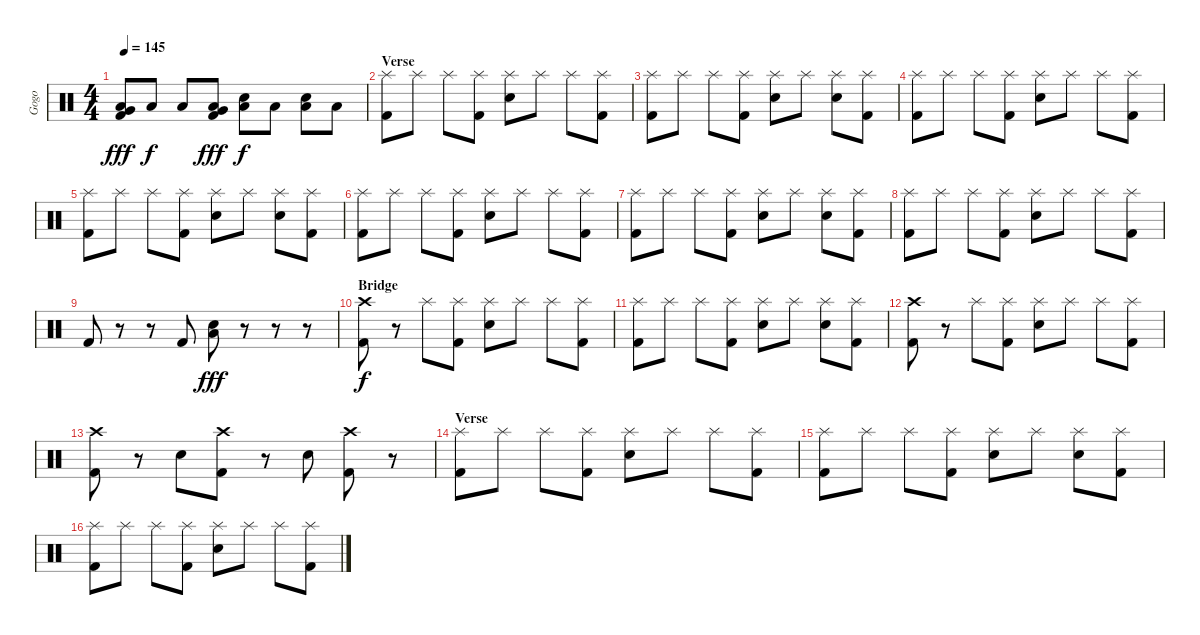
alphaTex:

\track ("Gogo" "Gogo") {instrument percussion}
\staff {score}
\articulation defaults
\ts (4 4)
\tempo 145
\clef neutral
\ks c
("Very Low Tom (hit)" "Low Floor Tom (hit)" "Kick (hit) 2").8{dy fff} "Low Floor Tom (hit)".8{dy f} "Low Floor Tom (hit)".8 ("Very Low Tom (hit)" "Low Floor Tom (hit)" "Kick (hit) 2").8{dy fff} ("Snare (hit) 2" "Low Floor Tom (hit)").8{dy f} "Low Floor Tom (hit)".8 ("Snare (hit) 2" "Low Floor Tom (hit)").8 "Low Floor Tom (hit)".8 |
\section ("" "Verse")
("Splash (hit)" "Kick (hit) 2").8 "Splash (hit)".8 "Splash (hit)".8 ("Splash (hit)" "Kick (hit) 2").8 ("Splash (hit)" "Electric Snare (hit)").8 "Splash (hit)".8 "Splash (hit)".8 ("Splash (hit)" "Kick (hit) 2").8 |
("Splash (hit)" "Kick (hit) 2").8 "Splash (hit)".8 "Splash (hit)".8 ("Splash (hit)" "Kick (hit) 2").8 ("Splash (hit)" "Electric Snare (hit)").8 "Splash (hit)".8 ("Splash (hit)" "Electric Snare (hit)").8 ("Splash (hit)" "Kick (hit) 2").8 |
("Splash (hit)" "Kick (hit) 2").8 "Splash (hit)".8 "Splash (hit)".8 ("Splash (hit)" "Kick (hit) 2").8 ("Splash (hit)" "Electric Snare (hit)").8 "Splash (hit)".8 "Splash (hit)".8 ("Splash (hit)" "Kick (hit) 2").8 |
("Splash (hit)" "Kick (hit) 2").8 "Splash (hit)".8 "Splash (hit)".8 ("Splash (hit)" "Kick (hit) 2").8 ("Splash (hit)" "Electric Snare (hit)").8 "Splash (hit)".8 ("Splash (hit)" "Electric Snare (hit)").8 ("Splash (hit)" "Kick (hit) 2").8 |
("Splash (hit)" "Kick (hit) 2").8 "Splash (hit)".8 "Splash (hit)".8 ("Splash (hit)" "Kick (hit) 2").8 ("Splash (hit)" "Electric Snare (hit)").8 "Splash (hit)".8 "Splash (hit)".8 ("Splash (hit)" "Kick (hit) 2").8 |
("Splash (hit)" "Kick (hit) 2").8 "Splash (hit)".8 "Splash (hit)".8 ("Splash (hit)" "Kick (hit) 2").8 ("Splash (hit)" "Electric Snare (hit)").8 "Splash (hit)".8 ("Splash (hit)" "Electric Snare (hit)").8 ("Splash (hit)" "Kick (hit) 2").8 |
("Splash (hit)" "Kick (hit) 2").8 "Splash (hit)".8 "Splash (hit)".8 ("Splash (hit)" "Kick (hit) 2").8 ("Splash (hit)" "Electric Snare (hit)").8 "Splash (hit)".8 "Splash (hit)".8 ("Splash (hit)" "Kick (hit) 2").8 |
"Kick (hit) 2".8 r.8 r.8 "Kick (hit) 2".8 ("Snare (hit) 2" "Low Floor Tom (hit)").8{dy fff} r.8 r.8 r.8 |
\section ("" "Bridge")
("Crash high (hit)" "Kick (hit) 2").8{dy f} r.8 "Splash (hit)".8 ("Splash (hit)" "Kick (hit) 2").8 ("Splash (hit)" "Electric Snare (hit)").8 "Splash (hit)".8 "Splash (hit)".8 ("Splash (hit)" "Kick (hit) 2").8 |
("Splash (hit)" "Kick (hit) 2").8 "Splash (hit)".8 "Splash (hit)".8 ("Splash (hit)" "Kick (hit) 2").8 ("Splash (hit)" "Electric Snare (hit)").8 "Splash (hit)".8 ("Splash (hit)" "Electric Snare (hit)").8 ("Splash (hit)" "Kick (hit) 2").8 |
("Crash high (hit)" "Kick (hit) 2").8 r.8 "Splash (hit)".8 ("Splash (hit)" "Kick (hit) 2").8 ("Splash (hit)" "Electric Snare (hit)").8 "Splash (hit)".8 "Splash (hit)".8 ("Splash (hit)" "Kick (hit) 2").8 |
("Crash high (hit)" "Kick (hit) 2").8 r.8 "Electric Snare (hit)".8 ("Crash high (hit)" "Kick (hit) 2").8 r.8 "Electric Snare (hit)".8 ("Crash high (hit)" "Kick (hit) 2").8 r.8 |
\section ("" "Verse")
("Splash (hit)" "Kick (hit) 2").8 "Splash (hit)".8 "Splash (hit)".8 ("Splash (hit)" "Kick (hit) 2").8 ("Splash (hit)" "Electric Snare (hit)").8 "Splash (hit)".8 "Splash (hit)".8 ("Splash (hit)" "Kick (hit) 2").8 |
("Splash (hit)" "Kick (hit) 2").8 "Splash (hit)".8 "Splash (hit)".8 ("Splash (hit)" "Kick (hit) 2").8 ("Splash (hit)" "Electric Snare (hit)").8 "Splash (hit)".8 ("Splash (hit)" "Electric Snare (hit)").8 ("Splash (hit)" "Kick (hit) 2").8 |
("Splash (hit)" "Kick (hit) 2").8 "Splash (hit)".8 "Splash (hit)".8 ("Splash (hit)" "Kick (hit) 2").8 ("Splash (hit)" "Electric Snare (hit)").8 "Splash (hit)".8 "Splash (hit)".8 ("Splash (hit)" "Kick (hit) 2").8
